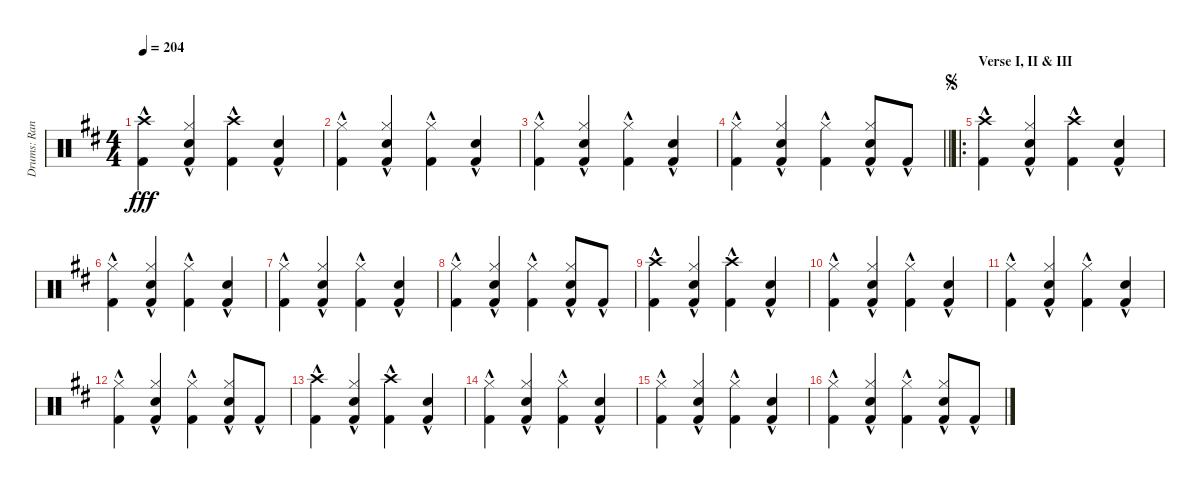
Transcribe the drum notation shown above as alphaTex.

\track ("Drums: Randy" "Drums: Ran") {instrument percussion}
\staff {score}
\articulation defaults
\ts (4 4)
\tempo 204
\clef neutral
\ks d
("Crash high (hit)"{hac} "Kick (hit) 2"{hac}).4{dy fff} ("Hi-Hat (closed)"{hac} "Snare (hit) 2"{hac} "Kick (hit) 2"{hac}).4 ("Crash high (hit)"{hac} "Kick (hit) 2"{hac}).4 ("Snare (hit) 2"{hac} "Kick (hit) 2"{hac}).4 |
("Hi-Hat (closed)"{hac} "Kick (hit) 2"{hac}).4 ("Hi-Hat (closed)"{hac} "Snare (hit) 2"{hac} "Kick (hit) 2"{hac}).4 ("Hi-Hat (closed)"{hac} "Kick (hit) 2"{hac}).4 ("Snare (hit) 2"{hac} "Kick (hit) 2"{hac}).4 |
("Hi-Hat (closed)"{hac} "Kick (hit) 2"{hac}).4 ("Hi-Hat (closed)"{hac} "Snare (hit) 2"{hac} "Kick (hit) 2"{hac}).4 ("Hi-Hat (closed)"{hac} "Kick (hit) 2"{hac}).4 ("Snare (hit) 2"{hac} "Kick (hit) 2"{hac}).4 |
\barLineRight lightlight
("Hi-Hat (closed)"{hac} "Kick (hit) 2"{hac}).4 ("Hi-Hat (closed)"{hac} "Snare (hit) 2"{hac} "Kick (hit) 2"{hac}).4 ("Hi-Hat (closed)"{hac} "Kick (hit) 2"{hac}).4 ("Hi-Hat (closed)"{hac} "Snare (hit) 2"{hac} "Kick (hit) 2"{hac}).8 "Kick (hit) 2"{hac}.8 |
\ro
\section ("" "Verse I, II & III")
\jump segno
("Crash high (hit)"{hac} "Kick (hit) 2"{hac}).4 ("Hi-Hat (closed)"{hac} "Snare (hit) 2"{hac} "Kick (hit) 2"{hac}).4 ("Crash high (hit)"{hac} "Kick (hit) 2"{hac}).4 ("Snare (hit) 2"{hac} "Kick (hit) 2"{hac}).4 |
("Hi-Hat (closed)"{hac} "Kick (hit) 2"{hac}).4 ("Hi-Hat (closed)"{hac} "Snare (hit) 2"{hac} "Kick (hit) 2"{hac}).4 ("Hi-Hat (closed)"{hac} "Kick (hit) 2"{hac}).4 ("Snare (hit) 2"{hac} "Kick (hit) 2"{hac}).4 |
("Hi-Hat (closed)"{hac} "Kick (hit) 2"{hac}).4 ("Hi-Hat (closed)"{hac} "Snare (hit) 2"{hac} "Kick (hit) 2"{hac}).4 ("Hi-Hat (closed)"{hac} "Kick (hit) 2"{hac}).4 ("Snare (hit) 2"{hac} "Kick (hit) 2"{hac}).4 |
("Hi-Hat (closed)"{hac} "Kick (hit) 2"{hac}).4 ("Hi-Hat (closed)"{hac} "Snare (hit) 2"{hac} "Kick (hit) 2"{hac}).4 ("Hi-Hat (closed)"{hac} "Kick (hit) 2"{hac}).4 ("Hi-Hat (closed)"{hac} "Snare (hit) 2"{hac} "Kick (hit) 2"{hac}).8 "Kick (hit) 2"{hac}.8 |
("Crash high (hit)"{hac} "Kick (hit) 2"{hac}).4 ("Hi-Hat (closed)"{hac} "Snare (hit) 2"{hac} "Kick (hit) 2"{hac}).4 ("Crash high (hit)"{hac} "Kick (hit) 2"{hac}).4 ("Snare (hit) 2"{hac} "Kick (hit) 2"{hac}).4 |
("Hi-Hat (closed)"{hac} "Kick (hit) 2"{hac}).4 ("Hi-Hat (closed)"{hac} "Snare (hit) 2"{hac} "Kick (hit) 2"{hac}).4 ("Hi-Hat (closed)"{hac} "Kick (hit) 2"{hac}).4 ("Snare (hit) 2"{hac} "Kick (hit) 2"{hac}).4 |
("Hi-Hat (closed)"{hac} "Kick (hit) 2"{hac}).4 ("Hi-Hat (closed)"{hac} "Snare (hit) 2"{hac} "Kick (hit) 2"{hac}).4 ("Hi-Hat (closed)"{hac} "Kick (hit) 2"{hac}).4 ("Snare (hit) 2"{hac} "Kick (hit) 2"{hac}).4 |
("Hi-Hat (closed)"{hac} "Kick (hit) 2"{hac}).4 ("Hi-Hat (closed)"{hac} "Snare (hit) 2"{hac} "Kick (hit) 2"{hac}).4 ("Hi-Hat (closed)"{hac} "Kick (hit) 2"{hac}).4 ("Hi-Hat (closed)"{hac} "Snare (hit) 2"{hac} "Kick (hit) 2"{hac}).8 "Kick (hit) 2"{hac}.8 |
("Crash high (hit)"{hac} "Kick (hit) 2"{hac}).4 ("Hi-Hat (closed)"{hac} "Snare (hit) 2"{hac} "Kick (hit) 2"{hac}).4 ("Crash high (hit)"{hac} "Kick (hit) 2"{hac}).4 ("Snare (hit) 2"{hac} "Kick (hit) 2"{hac}).4 |
("Hi-Hat (closed)"{hac} "Kick (hit) 2"{hac}).4 ("Hi-Hat (closed)"{hac} "Snare (hit) 2"{hac} "Kick (hit) 2"{hac}).4 ("Hi-Hat (closed)"{hac} "Kick (hit) 2"{hac}).4 ("Snare (hit) 2"{hac} "Kick (hit) 2"{hac}).4 |
("Hi-Hat (closed)"{hac} "Kick (hit) 2"{hac}).4 ("Hi-Hat (closed)"{hac} "Snare (hit) 2"{hac} "Kick (hit) 2"{hac}).4 ("Hi-Hat (closed)"{hac} "Kick (hit) 2"{hac}).4 ("Snare (hit) 2"{hac} "Kick (hit) 2"{hac}).4 |
("Hi-Hat (closed)"{hac} "Kick (hit) 2"{hac}).4 ("Hi-Hat (closed)"{hac} "Snare (hit) 2"{hac} "Kick (hit) 2"{hac}).4 ("Hi-Hat (closed)"{hac} "Kick (hit) 2"{hac}).4 ("Hi-Hat (closed)"{hac} "Snare (hit) 2"{hac} "Kick (hit) 2"{hac}).8 "Kick (hit) 2"{hac}.8
